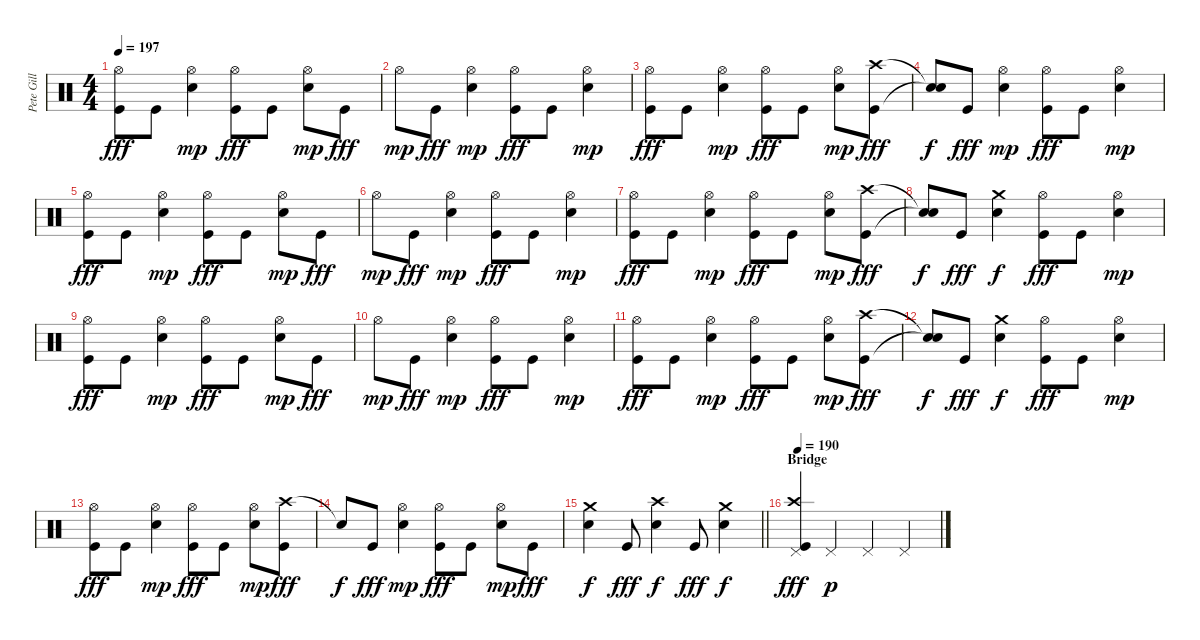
\track ("Pete Gill" "Pete Gill") {instrument percussion}
\staff {score}
\articulation defaults
\ts (4 4)
\tempo 197
\clef neutral
\ks c
("Hi-Hat (open)" "Kick (hit)").8{dy fff} "Kick (hit)".8 ("Hi-Hat (open)" "Electric Snare (hit)").4{dy mp} ("Hi-Hat (open)" "Kick (hit)").8{dy fff} "Kick (hit)".8 ("Hi-Hat (open)" "Electric Snare (hit)").8{dy mp} "Kick (hit)".8{dy fff} |
"Hi-Hat (open)".8{dy mp} "Kick (hit)".8{dy fff} ("Hi-Hat (open)" "Electric Snare (hit)").4{dy mp} ("Hi-Hat (open)" "Kick (hit)").8{dy fff} "Kick (hit)".8 ("Hi-Hat (open)" "Electric Snare (hit)").4{dy mp} |
("Hi-Hat (open)" "Kick (hit)").8{dy fff} "Kick (hit)".8 ("Hi-Hat (open)" "Electric Snare (hit)").4{dy mp} ("Hi-Hat (open)" "Kick (hit)").8{dy fff} "Kick (hit)".8 ("Hi-Hat (open)" "Electric Snare (hit)").8{dy mp} ("Crash high (hit)" "Kick (hit)").8{dy fff} |
("Snare (hit)"{t} "Snare (hit)"{t}).8{dy f} "Kick (hit)".8{dy fff} ("Hi-Hat (open)" "Electric Snare (hit)").4{dy mp} ("Hi-Hat (open)" "Kick (hit)").8{dy fff} "Kick (hit)".8 ("Hi-Hat (open)" "Electric Snare (hit)").4{dy mp} |
("Hi-Hat (open)" "Kick (hit)").8{dy fff} "Kick (hit)".8 ("Hi-Hat (open)" "Electric Snare (hit)").4{dy mp} ("Hi-Hat (open)" "Kick (hit)").8{dy fff} "Kick (hit)".8 ("Hi-Hat (open)" "Electric Snare (hit)").8{dy mp} "Kick (hit)".8{dy fff} |
"Hi-Hat (open)".8{dy mp} "Kick (hit)".8{dy fff} ("Hi-Hat (open)" "Electric Snare (hit)").4{dy mp} ("Hi-Hat (open)" "Kick (hit)").8{dy fff} "Kick (hit)".8 ("Hi-Hat (open)" "Electric Snare (hit)").4{dy mp} |
("Hi-Hat (open)" "Kick (hit)").8{dy fff} "Kick (hit)".8 ("Hi-Hat (open)" "Electric Snare (hit)").4{dy mp} ("Hi-Hat (open)" "Kick (hit)").8{dy fff} "Kick (hit)".8 ("Hi-Hat (open)" "Electric Snare (hit)").8{dy mp} ("Crash high (hit)" "Kick (hit)").8{dy fff} |
("Snare (hit)"{t} "Snare (hit)"{t}).8{dy f} "Kick (hit)".8{dy fff} ("Crash medium (hit)" "Electric Snare (hit)").4{dy f} ("Hi-Hat (open)" "Kick (hit)").8{dy fff} "Kick (hit)".8 ("Hi-Hat (open)" "Electric Snare (hit)").4{dy mp} |
("Hi-Hat (open)" "Kick (hit)").8{dy fff} "Kick (hit)".8 ("Hi-Hat (open)" "Electric Snare (hit)").4{dy mp} ("Hi-Hat (open)" "Kick (hit)").8{dy fff} "Kick (hit)".8 ("Hi-Hat (open)" "Electric Snare (hit)").8{dy mp} "Kick (hit)".8{dy fff} |
"Hi-Hat (open)".8{dy mp} "Kick (hit)".8{dy fff} ("Hi-Hat (open)" "Electric Snare (hit)").4{dy mp} ("Hi-Hat (open)" "Kick (hit)").8{dy fff} "Kick (hit)".8 ("Hi-Hat (open)" "Electric Snare (hit)").4{dy mp} |
("Hi-Hat (open)" "Kick (hit)").8{dy fff} "Kick (hit)".8 ("Hi-Hat (open)" "Electric Snare (hit)").4{dy mp} ("Hi-Hat (open)" "Kick (hit)").8{dy fff} "Kick (hit)".8 ("Hi-Hat (open)" "Electric Snare (hit)").8{dy mp} ("Crash high (hit)" "Kick (hit)").8{dy fff} |
("Snare (hit)"{t} "Snare (hit)"{t}).8{dy f} "Kick (hit)".8{dy fff} ("Crash medium (hit)" "Electric Snare (hit)").4{dy f} ("Hi-Hat (open)" "Kick (hit)").8{dy fff} "Kick (hit)".8 ("Hi-Hat (open)" "Electric Snare (hit)").4{dy mp} |
("Hi-Hat (open)" "Kick (hit)").8{dy fff} "Kick (hit)".8 ("Hi-Hat (open)" "Electric Snare (hit)").4{dy mp} ("Hi-Hat (open)" "Kick (hit)").8{dy fff} "Kick (hit)".8 ("Hi-Hat (open)" "Electric Snare (hit)").8{dy mp} ("Crash high (hit)" "Kick (hit)").8{dy fff} |
"Snare (hit)"{t}.8{dy f} "Kick (hit)".8{dy fff} ("Hi-Hat (open)" "Electric Snare (hit)").4{dy mp} ("Hi-Hat (open)" "Kick (hit)").8{dy fff} "Kick (hit)".8 ("Hi-Hat (open)" "Electric Snare (hit)").8{dy mp} "Kick (hit)".8{dy fff} |
\barLineRight lightlight
("Crash medium (hit)" "Electric Snare (hit)").4{dy f} "Kick (hit)".8{dy fff} ("Crash high (hit)" "Electric Snare (hit)").4{dy f} "Kick (hit)".8{dy fff} ("Crash medium (hit)" "Electric Snare (hit)").4{dy f} |
\section ("" "Bridge")
\tempo 190
("Pedal Hi-Hat (hit)" "Crash high (hit)" "Kick (hit)").4{dy fff} "Pedal Hi-Hat (hit)".4{dy p} "Pedal Hi-Hat (hit)".4 "Pedal Hi-Hat (hit)".4
